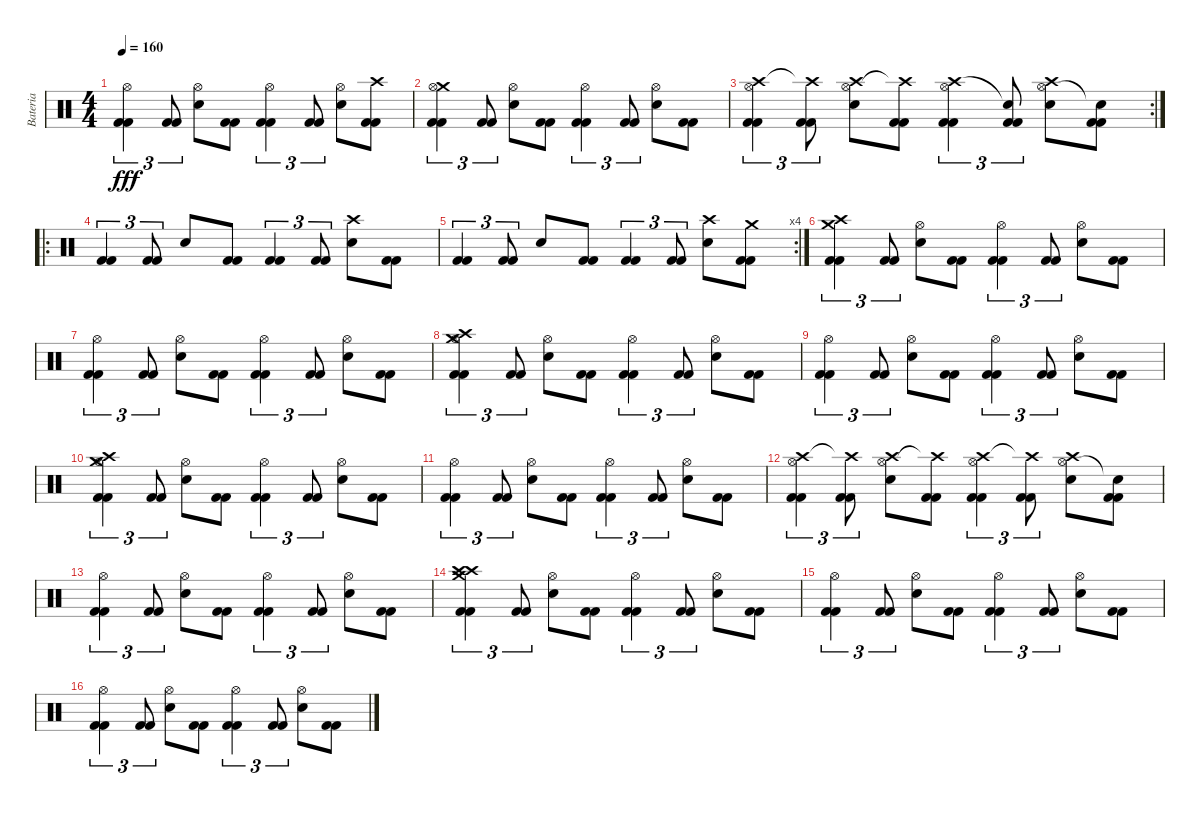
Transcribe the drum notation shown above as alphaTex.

\track ("Bateria" "Bateria") {instrument percussion}
\staff {score}
\articulation defaults
\ts (4 4)
\tempo 160
\clef neutral
\ks c
("Kick (hit) 2" "Kick (hit) 2" "Hi-Hat (open)").4{tu (3 2) dy fff} ("Kick (hit) 2" "Kick (hit) 2").8{tu (3 2)} ("Snare (hit) 2" "Hi-Hat (open)").8 ("Kick (hit) 2" "Kick (hit) 2").8 ("Kick (hit) 2" "Kick (hit) 2" "Hi-Hat (open)").4{tu (3 2)} ("Kick (hit) 2" "Kick (hit) 2").8{tu (3 2)} ("Snare (hit) 2" "Hi-Hat (open)").8 ("Kick (hit) 2" "Kick (hit) 2" "Crash high (hit)").8 |
("Kick (hit) 2" "Kick (hit) 2" "Crash medium (hit)" "Hi-Hat (open)").4{tu (3 2)} ("Kick (hit) 2" "Kick (hit) 2").8{tu (3 2)} ("Snare (hit) 2" "Hi-Hat (open)").8 ("Kick (hit) 2" "Kick (hit) 2").8 ("Kick (hit) 2" "Kick (hit) 2" "Hi-Hat (open)").4{tu (3 2)} ("Kick (hit) 2" "Kick (hit) 2").8{tu (3 2)} ("Snare (hit) 2" "Hi-Hat (open)").8 ("Kick (hit) 2" "Kick (hit) 2").8 |
\rc 2
("Kick (hit) 2" "Kick (hit) 2" "Crash high (hit)" "Hi-Hat (open)").4{tu (3 2)} ("Kick (hit) 2" "Kick (hit) 2" "Crash high (hit)"{t}).8{tu (3 2)} ("Snare (hit) 2" "Crash high (hit)" "Hi-Hat (open)").8 ("Kick (hit) 2" "Kick (hit) 2" "Crash high (hit)"{t}).8 ("Kick (hit) 2" "Kick (hit) 2" "Crash high (hit)" "Hi-Hat (open)").4{tu (3 2)} ("Kick (hit) 2" "Kick (hit) 2" "Snare (hit)"{t}).8{tu (3 2)} ("Snare (hit) 2" "Crash high (hit)" "Hi-Hat (open)").8 ("Kick (hit) 2" "Kick (hit) 2" "Snare (hit)"{t}).8 |
\ro
("Kick (hit) 2" "Kick (hit) 2").4{tu (3 2)} ("Kick (hit) 2" "Kick (hit) 2").8{tu (3 2)} "Snare (hit) 2".8 ("Kick (hit) 2" "Kick (hit) 2").8 ("Kick (hit) 2" "Kick (hit) 2").4{tu (3 2)} ("Kick (hit) 2" "Kick (hit) 2").8{tu (3 2)} ("Snare (hit) 2" "Crash high (hit)").8 ("Kick (hit) 2" "Kick (hit) 2").8 |
\rc 4
("Kick (hit) 2" "Kick (hit) 2").4{tu (3 2)} ("Kick (hit) 2" "Kick (hit) 2").8{tu (3 2)} "Snare (hit) 2".8 ("Kick (hit) 2" "Kick (hit) 2").8 ("Kick (hit) 2" "Kick (hit) 2").4{tu (3 2)} ("Kick (hit) 2" "Kick (hit) 2").8{tu (3 2)} ("Snare (hit) 2" "Crash high (hit)").8 ("Kick (hit) 2" "Kick (hit) 2" "Crash medium (hit)").8 |
("Kick (hit) 2" "Kick (hit) 2" "Crash medium (hit)" "Crash high (hit)").4{tu (3 2)} ("Kick (hit) 2" "Kick (hit) 2").8{tu (3 2)} ("Snare (hit) 2" "Hi-Hat (open)").8 ("Kick (hit) 2" "Kick (hit) 2").8 ("Kick (hit) 2" "Kick (hit) 2" "Hi-Hat (open)").4{tu (3 2)} ("Kick (hit) 2" "Kick (hit) 2").8{tu (3 2)} ("Snare (hit) 2" "Hi-Hat (open)").8 ("Kick (hit) 2" "Kick (hit) 2").8 |
("Kick (hit) 2" "Kick (hit) 2" "Hi-Hat (open)").4{tu (3 2)} ("Kick (hit) 2" "Kick (hit) 2").8{tu (3 2)} ("Snare (hit) 2" "Hi-Hat (open)").8 ("Kick (hit) 2" "Kick (hit) 2").8 ("Kick (hit) 2" "Kick (hit) 2" "Hi-Hat (open)").4{tu (3 2)} ("Kick (hit) 2" "Kick (hit) 2").8{tu (3 2)} ("Snare (hit) 2" "Hi-Hat (open)").8 ("Kick (hit) 2" "Kick (hit) 2").8 |
("Kick (hit) 2" "Kick (hit) 2" "Crash high (hit)" "Crash medium (hit)" "Hi-Hat (open)").4{tu (3 2)} ("Kick (hit) 2" "Kick (hit) 2").8{tu (3 2)} ("Snare (hit) 2" "Hi-Hat (open)").8 ("Kick (hit) 2" "Kick (hit) 2").8 ("Kick (hit) 2" "Kick (hit) 2" "Hi-Hat (open)").4{tu (3 2)} ("Kick (hit) 2" "Kick (hit) 2").8{tu (3 2)} ("Snare (hit) 2" "Hi-Hat (open)").8 ("Kick (hit) 2" "Kick (hit) 2").8 |
("Kick (hit) 2" "Kick (hit) 2" "Hi-Hat (open)").4{tu (3 2)} ("Kick (hit) 2" "Kick (hit) 2").8{tu (3 2)} ("Snare (hit) 2" "Hi-Hat (open)").8 ("Kick (hit) 2" "Kick (hit) 2").8 ("Kick (hit) 2" "Kick (hit) 2" "Hi-Hat (open)").4{tu (3 2)} ("Kick (hit) 2" "Kick (hit) 2").8{tu (3 2)} ("Snare (hit) 2" "Hi-Hat (open)").8 ("Kick (hit) 2" "Kick (hit) 2").8 |
("Kick (hit) 2" "Kick (hit) 2" "Crash high (hit)" "Crash medium (hit)" "Hi-Hat (open)").4{tu (3 2)} ("Kick (hit) 2" "Kick (hit) 2").8{tu (3 2)} ("Snare (hit) 2" "Hi-Hat (open)").8 ("Kick (hit) 2" "Kick (hit) 2").8 ("Kick (hit) 2" "Kick (hit) 2" "Hi-Hat (open)").4{tu (3 2)} ("Kick (hit) 2" "Kick (hit) 2").8{tu (3 2)} ("Snare (hit) 2" "Hi-Hat (open)").8 ("Kick (hit) 2" "Kick (hit) 2").8 |
("Kick (hit) 2" "Kick (hit) 2" "Hi-Hat (open)").4{tu (3 2)} ("Kick (hit) 2" "Kick (hit) 2").8{tu (3 2)} ("Snare (hit) 2" "Hi-Hat (open)").8 ("Kick (hit) 2" "Kick (hit) 2").8 ("Kick (hit) 2" "Kick (hit) 2" "Hi-Hat (open)").4{tu (3 2)} ("Kick (hit) 2" "Kick (hit) 2").8{tu (3 2)} ("Snare (hit) 2" "Hi-Hat (open)").8 ("Kick (hit) 2" "Kick (hit) 2").8 |
("Kick (hit) 2" "Kick (hit) 2" "Crash high (hit)" "Hi-Hat (open)").4{tu (3 2)} ("Kick (hit) 2" "Kick (hit) 2" "Crash high (hit)"{t}).8{tu (3 2)} ("Snare (hit) 2" "Crash high (hit)" "Hi-Hat (open)").8 ("Kick (hit) 2" "Kick (hit) 2" "Crash high (hit)"{t}).8 ("Kick (hit) 2" "Kick (hit) 2" "Crash high (hit)" "Hi-Hat (open)").4{tu (3 2)} ("Kick (hit) 2" "Kick (hit) 2" "Crash high (hit)"{t}).8{tu (3 2)} ("Snare (hit) 2" "Crash high (hit)" "Hi-Hat (open)").8 ("Kick (hit) 2" "Kick (hit) 2" "Snare (hit)"{t}).8 |
("Kick (hit) 2" "Kick (hit) 2" "Hi-Hat (open)").4{tu (3 2)} ("Kick (hit) 2" "Kick (hit) 2").8{tu (3 2)} ("Snare (hit) 2" "Hi-Hat (open)").8 ("Kick (hit) 2" "Kick (hit) 2").8 ("Kick (hit) 2" "Kick (hit) 2" "Hi-Hat (open)").4{tu (3 2)} ("Kick (hit) 2" "Kick (hit) 2").8{tu (3 2)} ("Snare (hit) 2" "Hi-Hat (open)").8 ("Kick (hit) 2" "Kick (hit) 2").8 |
("Kick (hit) 2" "Kick (hit) 2" "Crash high (hit)" "Crash medium (hit)" "Crash high (hit)").4{tu (3 2)} ("Kick (hit) 2" "Kick (hit) 2").8{tu (3 2)} ("Snare (hit) 2" "Hi-Hat (open)").8 ("Kick (hit) 2" "Kick (hit) 2").8 ("Kick (hit) 2" "Kick (hit) 2" "Hi-Hat (open)").4{tu (3 2)} ("Kick (hit) 2" "Kick (hit) 2").8{tu (3 2)} ("Snare (hit) 2" "Hi-Hat (open)").8 ("Kick (hit) 2" "Kick (hit) 2").8 |
("Kick (hit) 2" "Kick (hit) 2" "Hi-Hat (open)").4{tu (3 2)} ("Kick (hit) 2" "Kick (hit) 2").8{tu (3 2)} ("Snare (hit) 2" "Hi-Hat (open)").8 ("Kick (hit) 2" "Kick (hit) 2").8 ("Kick (hit) 2" "Kick (hit) 2" "Hi-Hat (open)").4{tu (3 2)} ("Kick (hit) 2" "Kick (hit) 2").8{tu (3 2)} ("Snare (hit) 2" "Hi-Hat (open)").8 ("Kick (hit) 2" "Kick (hit) 2").8 |
("Kick (hit) 2" "Kick (hit) 2" "Hi-Hat (open)").4{tu (3 2)} ("Kick (hit) 2" "Kick (hit) 2").8{tu (3 2)} ("Snare (hit) 2" "Hi-Hat (open)").8 ("Kick (hit) 2" "Kick (hit) 2").8 ("Kick (hit) 2" "Kick (hit) 2" "Hi-Hat (open)").4{tu (3 2)} ("Kick (hit) 2" "Kick (hit) 2").8{tu (3 2)} ("Snare (hit) 2" "Hi-Hat (open)").8 ("Kick (hit) 2" "Kick (hit) 2").8
